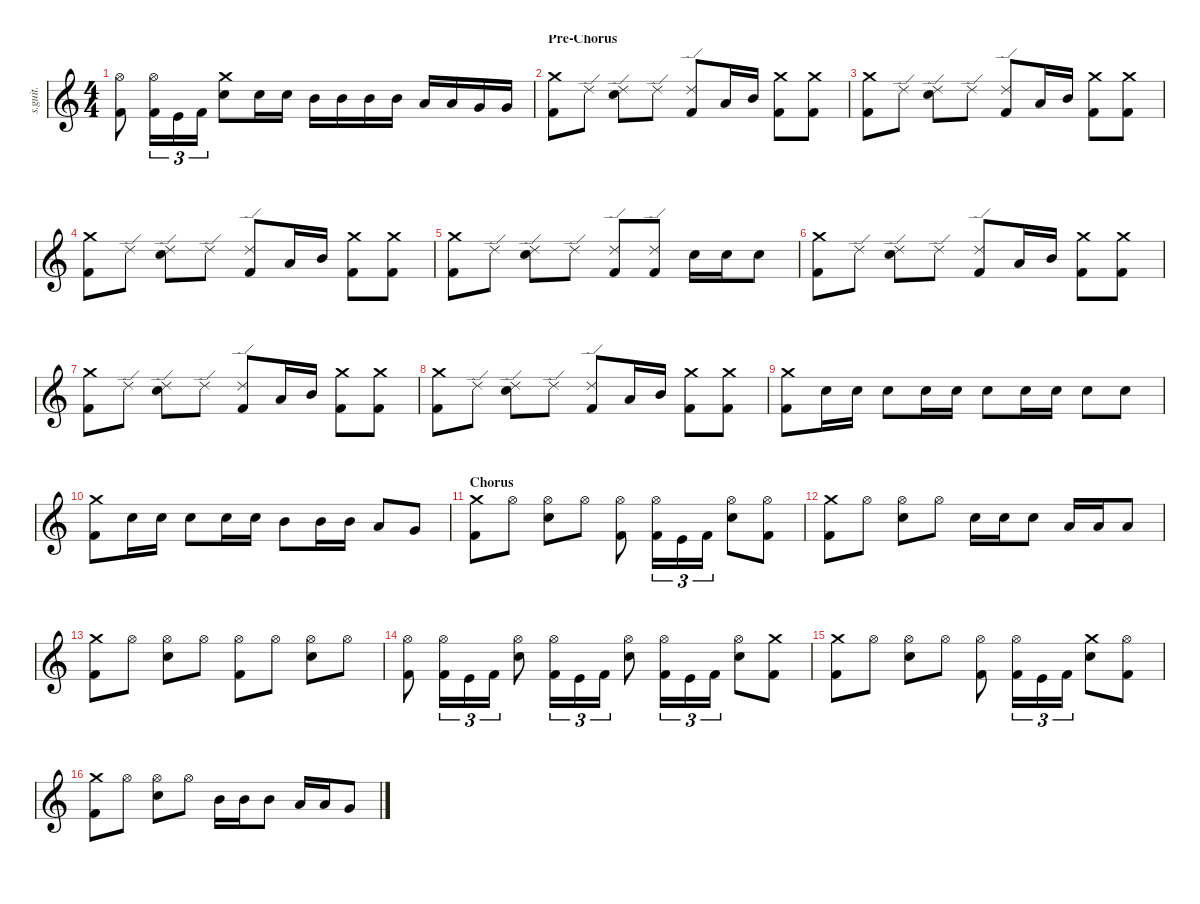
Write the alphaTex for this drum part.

\defaultSystemsLayout 4
\hideDynamics
\bracketExtendMode nobrackets
\track ("Lars Ulrich - Drums" "s.guit.") {instrument percussion}
\staff {score}
\articulation defaults
\ts (4 4)
\tempo (140 hide)
\clef g2
\ks c
("Hi-Hat (open)" "Kick (hit) 2").8{lyrics (0 "") lyrics (1 "") lyrics (2 "") lyrics (3 "") lyrics (4 "") dy f} ("Hi-Hat (open)" "Kick (hit) 2").16{tu (3 2) lyrics (0 "") lyrics (1 "") lyrics (2 "") lyrics (3 "") lyrics (4 "")} "Kick (hit)".16{tu (3 2) lyrics (0 "") lyrics (1 "") lyrics (2 "") lyrics (3 "") lyrics (4 "")} "Kick (hit) 2".16{tu (3 2) lyrics (0 "") lyrics (1 "") lyrics (2 "") lyrics (3 "") lyrics (4 "")} ("Crash medium (hit)" "Snare (hit) 2").8{lyrics (0 "") lyrics (1 "") lyrics (2 "") lyrics (3 "") lyrics (4 "")} "Snare (hit) 2".16{lyrics (0 "") lyrics (1 "") lyrics (2 "") lyrics (3 "") lyrics (4 "")} "Snare (hit) 2".16{lyrics (0 "") lyrics (1 "") lyrics (2 "") lyrics (3 "") lyrics (4 "")} "Mid Tom (hit)".16{lyrics (0 "") lyrics (1 "") lyrics (2 "") lyrics (3 "") lyrics (4 "") dy fff} "Mid Tom (hit)".16{lyrics (0 "") lyrics (1 "") lyrics (2 "") lyrics (3 "") lyrics (4 "")} "Mid Tom (hit)".16{lyrics (0 "") lyrics (1 "") lyrics (2 "") lyrics (3 "") lyrics (4 "")} "Mid Tom (hit)".16{lyrics (0 "") lyrics (1 "") lyrics (2 "") lyrics (3 "") lyrics (4 "")} "Low Tom (hit)".16{lyrics (0 "") lyrics (1 "") lyrics (2 "") lyrics (3 "") lyrics (4 "")} "Low Tom (hit)".16{lyrics (0 "") lyrics (1 "") lyrics (2 "") lyrics (3 "") lyrics (4 "")} "Very Low Tom (hit)".16{lyrics (0 "") lyrics (1 "") lyrics (2 "") lyrics (3 "") lyrics (4 "") dy ff} "Very Low Tom (hit)".16{lyrics (0 "") lyrics (1 "") lyrics (2 "") lyrics (3 "") lyrics (4 "")} |
\section ("" "Pre-Chorus")
("Crash medium (hit)" "Kick (hit) 2").8{lyrics (0 "") lyrics (1 "") lyrics (2 "") lyrics (3 "") lyrics (4 "") dy f} "Ride (edge) 2".8{lyrics (0 "") lyrics (1 "") lyrics (2 "") lyrics (3 "") lyrics (4 "")} ("Ride (edge) 2" "Snare (hit) 2").8{lyrics (0 "") lyrics (1 "") lyrics (2 "") lyrics (3 "") lyrics (4 "")} "Ride (edge) 2".8{lyrics (0 "") lyrics (1 "") lyrics (2 "") lyrics (3 "") lyrics (4 "")} ("Ride (edge) 2" "Kick (hit) 2").8{lyrics (0 "") lyrics (1 "") lyrics (2 "") lyrics (3 "") lyrics (4 "")} "Low Tom (hit)".16{lyrics (0 "") lyrics (1 "") lyrics (2 "") lyrics (3 "") lyrics (4 "") dy fff} "Mid Tom (hit)".16{lyrics (0 "") lyrics (1 "") lyrics (2 "") lyrics (3 "") lyrics (4 "")} ("Crash medium (hit)" "Kick (hit) 2").8{lyrics (0 "") lyrics (1 "") lyrics (2 "") lyrics (3 "") lyrics (4 "") dy f} ("Crash medium (hit)" "Kick (hit) 2").8{lyrics (0 "") lyrics (1 "") lyrics (2 "") lyrics (3 "") lyrics (4 "")} |
("Crash medium (hit)" "Kick (hit) 2").8{lyrics (0 "") lyrics (1 "") lyrics (2 "") lyrics (3 "") lyrics (4 "")} "Ride (edge) 2".8{lyrics (0 "") lyrics (1 "") lyrics (2 "") lyrics (3 "") lyrics (4 "")} ("Ride (edge) 2" "Snare (hit) 2").8{lyrics (0 "") lyrics (1 "") lyrics (2 "") lyrics (3 "") lyrics (4 "")} "Ride (edge) 2".8{lyrics (0 "") lyrics (1 "") lyrics (2 "") lyrics (3 "") lyrics (4 "")} ("Ride (edge) 2" "Kick (hit) 2").8{lyrics (0 "") lyrics (1 "") lyrics (2 "") lyrics (3 "") lyrics (4 "")} "Low Tom (hit)".16{lyrics (0 "") lyrics (1 "") lyrics (2 "") lyrics (3 "") lyrics (4 "") dy fff} "Mid Tom (hit)".16{lyrics (0 "") lyrics (1 "") lyrics (2 "") lyrics (3 "") lyrics (4 "")} ("Crash medium (hit)" "Kick (hit) 2").8{lyrics (0 "") lyrics (1 "") lyrics (2 "") lyrics (3 "") lyrics (4 "") dy f} ("Crash medium (hit)" "Kick (hit) 2").8{lyrics (0 "") lyrics (1 "") lyrics (2 "") lyrics (3 "") lyrics (4 "")} |
("Crash medium (hit)" "Kick (hit) 2").8{lyrics (0 "") lyrics (1 "") lyrics (2 "") lyrics (3 "") lyrics (4 "")} "Ride (edge) 2".8{lyrics (0 "") lyrics (1 "") lyrics (2 "") lyrics (3 "") lyrics (4 "")} ("Ride (edge) 2" "Snare (hit) 2").8{lyrics (0 "") lyrics (1 "") lyrics (2 "") lyrics (3 "") lyrics (4 "")} "Ride (edge) 2".8{lyrics (0 "") lyrics (1 "") lyrics (2 "") lyrics (3 "") lyrics (4 "")} ("Ride (edge) 2" "Kick (hit) 2").8{lyrics (0 "") lyrics (1 "") lyrics (2 "") lyrics (3 "") lyrics (4 "")} "Low Tom (hit)".16{lyrics (0 "") lyrics (1 "") lyrics (2 "") lyrics (3 "") lyrics (4 "") dy fff} "Mid Tom (hit)".16{lyrics (0 "") lyrics (1 "") lyrics (2 "") lyrics (3 "") lyrics (4 "")} ("Crash medium (hit)" "Kick (hit) 2").8{lyrics (0 "") lyrics (1 "") lyrics (2 "") lyrics (3 "") lyrics (4 "") dy f} ("Crash medium (hit)" "Kick (hit) 2").8{lyrics (0 "") lyrics (1 "") lyrics (2 "") lyrics (3 "") lyrics (4 "")} |
("Crash medium (hit)" "Kick (hit) 2").8{lyrics (0 "") lyrics (1 "") lyrics (2 "") lyrics (3 "") lyrics (4 "")} "Ride (edge) 2".8{lyrics (0 "") lyrics (1 "") lyrics (2 "") lyrics (3 "") lyrics (4 "")} ("Ride (edge) 2" "Snare (hit) 2").8{lyrics (0 "") lyrics (1 "") lyrics (2 "") lyrics (3 "") lyrics (4 "")} "Ride (edge) 2".8{lyrics (0 "") lyrics (1 "") lyrics (2 "") lyrics (3 "") lyrics (4 "")} ("Ride (edge) 2" "Kick (hit) 2").8{lyrics (0 "") lyrics (1 "") lyrics (2 "") lyrics (3 "") lyrics (4 "")} ("Ride (edge) 2" "Kick (hit) 2").8{lyrics (0 "") lyrics (1 "") lyrics (2 "") lyrics (3 "") lyrics (4 "")} "Snare (hit) 2".16{lyrics (0 "") lyrics (1 "") lyrics (2 "") lyrics (3 "") lyrics (4 "") dy ff} "Snare (hit) 2".16{lyrics (0 "") lyrics (1 "") lyrics (2 "") lyrics (3 "") lyrics (4 "")} "Snare (hit) 2".8{lyrics (0 "") lyrics (1 "") lyrics (2 "") lyrics (3 "") lyrics (4 "")} |
("Crash medium (hit)" "Kick (hit) 2").8{lyrics (0 "") lyrics (1 "") lyrics (2 "") lyrics (3 "") lyrics (4 "") dy f} "Ride (edge) 2".8{lyrics (0 "") lyrics (1 "") lyrics (2 "") lyrics (3 "") lyrics (4 "")} ("Ride (edge) 2" "Snare (hit) 2").8{lyrics (0 "") lyrics (1 "") lyrics (2 "") lyrics (3 "") lyrics (4 "")} "Ride (edge) 2".8{lyrics (0 "") lyrics (1 "") lyrics (2 "") lyrics (3 "") lyrics (4 "")} ("Ride (edge) 2" "Kick (hit) 2").8{lyrics (0 "") lyrics (1 "") lyrics (2 "") lyrics (3 "") lyrics (4 "")} "Low Tom (hit)".16{lyrics (0 "") lyrics (1 "") lyrics (2 "") lyrics (3 "") lyrics (4 "") dy fff} "Mid Tom (hit)".16{lyrics (0 "") lyrics (1 "") lyrics (2 "") lyrics (3 "") lyrics (4 "")} ("Crash medium (hit)" "Kick (hit) 2").8{lyrics (0 "") lyrics (1 "") lyrics (2 "") lyrics (3 "") lyrics (4 "") dy f} ("Crash medium (hit)" "Kick (hit) 2").8{lyrics (0 "") lyrics (1 "") lyrics (2 "") lyrics (3 "") lyrics (4 "")} |
("Crash medium (hit)" "Kick (hit) 2").8{lyrics (0 "") lyrics (1 "") lyrics (2 "") lyrics (3 "") lyrics (4 "")} "Ride (edge) 2".8{lyrics (0 "") lyrics (1 "") lyrics (2 "") lyrics (3 "") lyrics (4 "")} ("Ride (edge) 2" "Snare (hit) 2").8{lyrics (0 "") lyrics (1 "") lyrics (2 "") lyrics (3 "") lyrics (4 "")} "Ride (edge) 2".8{lyrics (0 "") lyrics (1 "") lyrics (2 "") lyrics (3 "") lyrics (4 "")} ("Ride (edge) 2" "Kick (hit) 2").8{lyrics (0 "") lyrics (1 "") lyrics (2 "") lyrics (3 "") lyrics (4 "")} "Low Tom (hit)".16{lyrics (0 "") lyrics (1 "") lyrics (2 "") lyrics (3 "") lyrics (4 "") dy fff} "Mid Tom (hit)".16{lyrics (0 "") lyrics (1 "") lyrics (2 "") lyrics (3 "") lyrics (4 "")} ("Crash medium (hit)" "Kick (hit) 2").8{lyrics (0 "") lyrics (1 "") lyrics (2 "") lyrics (3 "") lyrics (4 "") dy f} ("Crash medium (hit)" "Kick (hit) 2").8{lyrics (0 "") lyrics (1 "") lyrics (2 "") lyrics (3 "") lyrics (4 "")} |
("Crash medium (hit)" "Kick (hit) 2").8{lyrics (0 "") lyrics (1 "") lyrics (2 "") lyrics (3 "") lyrics (4 "")} "Ride (edge) 2".8{lyrics (0 "") lyrics (1 "") lyrics (2 "") lyrics (3 "") lyrics (4 "")} ("Ride (edge) 2" "Snare (hit) 2").8{lyrics (0 "") lyrics (1 "") lyrics (2 "") lyrics (3 "") lyrics (4 "")} "Ride (edge) 2".8{lyrics (0 "") lyrics (1 "") lyrics (2 "") lyrics (3 "") lyrics (4 "")} ("Ride (edge) 2" "Kick (hit) 2").8{lyrics (0 "") lyrics (1 "") lyrics (2 "") lyrics (3 "") lyrics (4 "")} "Low Tom (hit)".16{lyrics (0 "") lyrics (1 "") lyrics (2 "") lyrics (3 "") lyrics (4 "") dy fff} "Mid Tom (hit)".16{lyrics (0 "") lyrics (1 "") lyrics (2 "") lyrics (3 "") lyrics (4 "")} ("Crash medium (hit)" "Kick (hit) 2").8{lyrics (0 "") lyrics (1 "") lyrics (2 "") lyrics (3 "") lyrics (4 "") dy f} ("Crash medium (hit)" "Kick (hit) 2").8{lyrics (0 "") lyrics (1 "") lyrics (2 "") lyrics (3 "") lyrics (4 "")} |
("Crash medium (hit)" "Kick (hit) 2").8{lyrics (0 "") lyrics (1 "") lyrics (2 "") lyrics (3 "") lyrics (4 "")} "Snare (hit) 2".16{lyrics (0 "") lyrics (1 "") lyrics (2 "") lyrics (3 "") lyrics (4 "") dy mf} "Snare (hit) 2".16{lyrics (0 "") lyrics (1 "") lyrics (2 "") lyrics (3 "") lyrics (4 "")} "Snare (hit) 2".8{lyrics (0 "") lyrics (1 "") lyrics (2 "") lyrics (3 "") lyrics (4 "") dy ff} "Snare (hit) 2".16{lyrics (0 "") lyrics (1 "") lyrics (2 "") lyrics (3 "") lyrics (4 "") dy mf} "Snare (hit) 2".16{lyrics (0 "") lyrics (1 "") lyrics (2 "") lyrics (3 "") lyrics (4 "")} "Snare (hit) 2".8{lyrics (0 "") lyrics (1 "") lyrics (2 "") lyrics (3 "") lyrics (4 "") dy ff} "Snare (hit) 2".16{lyrics (0 "") lyrics (1 "") lyrics (2 "") lyrics (3 "") lyrics (4 "") dy mf} "Snare (hit) 2".16{lyrics (0 "") lyrics (1 "") lyrics (2 "") lyrics (3 "") lyrics (4 "")} "Snare (hit) 2".8{lyrics (0 "") lyrics (1 "") lyrics (2 "") lyrics (3 "") lyrics (4 "") dy ff} "Snare (hit) 2".8{lyrics (0 "") lyrics (1 "") lyrics (2 "") lyrics (3 "") lyrics (4 "")} |
("Crash medium (hit)" "Kick (hit) 2").8{lyrics (0 "") lyrics (1 "") lyrics (2 "") lyrics (3 "") lyrics (4 "") dy f} "Snare (hit) 2".16{lyrics (0 "") lyrics (1 "") lyrics (2 "") lyrics (3 "") lyrics (4 "") dy mf} "Snare (hit) 2".16{lyrics (0 "") lyrics (1 "") lyrics (2 "") lyrics (3 "") lyrics (4 "")} "Snare (hit) 2".8{lyrics (0 "") lyrics (1 "") lyrics (2 "") lyrics (3 "") lyrics (4 "") dy ff} "Snare (hit) 2".16{lyrics (0 "") lyrics (1 "") lyrics (2 "") lyrics (3 "") lyrics (4 "") dy mf} "Snare (hit) 2".16{lyrics (0 "") lyrics (1 "") lyrics (2 "") lyrics (3 "") lyrics (4 "")} "Mid Tom (hit)".8{lyrics (0 "") lyrics (1 "") lyrics (2 "") lyrics (3 "") lyrics (4 "") dy fff} "Mid Tom (hit)".16{lyrics (0 "") lyrics (1 "") lyrics (2 "") lyrics (3 "") lyrics (4 "")} "Mid Tom (hit)".16{lyrics (0 "") lyrics (1 "") lyrics (2 "") lyrics (3 "") lyrics (4 "")} "Low Tom (hit)".8{lyrics (0 "") lyrics (1 "") lyrics (2 "") lyrics (3 "") lyrics (4 "")} "Very Low Tom (hit)".8{lyrics (0 "") lyrics (1 "") lyrics (2 "") lyrics (3 "") lyrics (4 "") dy ff} |
\section ("" "Chorus")
("Crash medium (hit)" "Kick (hit) 2").8{lyrics (0 "") lyrics (1 "") lyrics (2 "") lyrics (3 "") lyrics (4 "") dy f} "Hi-Hat (open)".8{lyrics (0 "") lyrics (1 "") lyrics (2 "") lyrics (3 "") lyrics (4 "")} ("Hi-Hat (open)" "Snare (hit) 2").8{lyrics (0 "") lyrics (1 "") lyrics (2 "") lyrics (3 "") lyrics (4 "")} "Hi-Hat (open)".8{lyrics (0 "") lyrics (1 "") lyrics (2 "") lyrics (3 "") lyrics (4 "")} ("Hi-Hat (open)" "Kick (hit) 2").8{lyrics (0 "") lyrics (1 "") lyrics (2 "") lyrics (3 "") lyrics (4 "")} ("Hi-Hat (open)" "Kick (hit) 2").16{tu (3 2) lyrics (0 "") lyrics (1 "") lyrics (2 "") lyrics (3 "") lyrics (4 "")} "Kick (hit)".16{tu (3 2) lyrics (0 "") lyrics (1 "") lyrics (2 "") lyrics (3 "") lyrics (4 "")} "Kick (hit) 2".16{tu (3 2) lyrics (0 "") lyrics (1 "") lyrics (2 "") lyrics (3 "") lyrics (4 "")} ("Hi-Hat (open)" "Snare (hit) 2").8{lyrics (0 "") lyrics (1 "") lyrics (2 "") lyrics (3 "") lyrics (4 "")} ("Hi-Hat (open)" "Kick (hit) 2").8{lyrics (0 "") lyrics (1 "") lyrics (2 "") lyrics (3 "") lyrics (4 "")} |
("Crash medium (hit)" "Kick (hit) 2").8{lyrics (0 "") lyrics (1 "") lyrics (2 "") lyrics (3 "") lyrics (4 "")} "Hi-Hat (open)".8{lyrics (0 "") lyrics (1 "") lyrics (2 "") lyrics (3 "") lyrics (4 "")} ("Hi-Hat (open)" "Snare (hit) 2").8{lyrics (0 "") lyrics (1 "") lyrics (2 "") lyrics (3 "") lyrics (4 "")} "Hi-Hat (open)".8{lyrics (0 "") lyrics (1 "") lyrics (2 "") lyrics (3 "") lyrics (4 "")} "Snare (hit) 2".16{lyrics (0 "") lyrics (1 "") lyrics (2 "") lyrics (3 "") lyrics (4 "") dy ff} "Snare (hit) 2".16{lyrics (0 "") lyrics (1 "") lyrics (2 "") lyrics (3 "") lyrics (4 "")} "Snare (hit) 2".8{lyrics (0 "") lyrics (1 "") lyrics (2 "") lyrics (3 "") lyrics (4 "")} "Low Tom (hit)".16{lyrics (0 "") lyrics (1 "") lyrics (2 "") lyrics (3 "") lyrics (4 "") dy fff} "Low Tom (hit)".16{lyrics (0 "") lyrics (1 "") lyrics (2 "") lyrics (3 "") lyrics (4 "")} "Low Tom (hit)".8{lyrics (0 "") lyrics (1 "") lyrics (2 "") lyrics (3 "") lyrics (4 "")} |
("Crash medium (hit)" "Kick (hit) 2").8{lyrics (0 "") lyrics (1 "") lyrics (2 "") lyrics (3 "") lyrics (4 "") dy f} "Hi-Hat (open)".8{lyrics (0 "") lyrics (1 "") lyrics (2 "") lyrics (3 "") lyrics (4 "")} ("Hi-Hat (open)" "Snare (hit) 2").8{lyrics (0 "") lyrics (1 "") lyrics (2 "") lyrics (3 "") lyrics (4 "")} "Hi-Hat (open)".8{lyrics (0 "") lyrics (1 "") lyrics (2 "") lyrics (3 "") lyrics (4 "")} ("Hi-Hat (open)" "Kick (hit) 2").8{lyrics (0 "") lyrics (1 "") lyrics (2 "") lyrics (3 "") lyrics (4 "")} "Hi-Hat (open)".8{lyrics (0 "") lyrics (1 "") lyrics (2 "") lyrics (3 "") lyrics (4 "")} ("Hi-Hat (open)" "Snare (hit) 2").8{lyrics (0 "") lyrics (1 "") lyrics (2 "") lyrics (3 "") lyrics (4 "")} "Hi-Hat (open)".8{lyrics (0 "") lyrics (1 "") lyrics (2 "") lyrics (3 "") lyrics (4 "")} |
("Hi-Hat (open)" "Kick (hit) 2").8{lyrics (0 "") lyrics (1 "") lyrics (2 "") lyrics (3 "") lyrics (4 "")} ("Hi-Hat (open)" "Kick (hit) 2").16{tu (3 2) lyrics (0 "") lyrics (1 "") lyrics (2 "") lyrics (3 "") lyrics (4 "")} "Kick (hit)".16{tu (3 2) lyrics (0 "") lyrics (1 "") lyrics (2 "") lyrics (3 "") lyrics (4 "")} "Kick (hit) 2".16{tu (3 2) lyrics (0 "") lyrics (1 "") lyrics (2 "") lyrics (3 "") lyrics (4 "")} ("Hi-Hat (open)" "Snare (hit) 2").8{lyrics (0 "") lyrics (1 "") lyrics (2 "") lyrics (3 "") lyrics (4 "")} ("Hi-Hat (open)" "Kick (hit) 2").16{tu (3 2) lyrics (0 "") lyrics (1 "") lyrics (2 "") lyrics (3 "") lyrics (4 "")} "Kick (hit)".16{tu (3 2) lyrics (0 "") lyrics (1 "") lyrics (2 "") lyrics (3 "") lyrics (4 "")} "Kick (hit) 2".16{tu (3 2) lyrics (0 "") lyrics (1 "") lyrics (2 "") lyrics (3 "") lyrics (4 "")} ("Hi-Hat (open)" "Snare (hit) 2").8{lyrics (0 "") lyrics (1 "") lyrics (2 "") lyrics (3 "") lyrics (4 "")} ("Hi-Hat (open)" "Kick (hit) 2").16{tu (3 2) lyrics (0 "") lyrics (1 "") lyrics (2 "") lyrics (3 "") lyrics (4 "")} "Kick (hit)".16{tu (3 2) lyrics (0 "") lyrics (1 "") lyrics (2 "") lyrics (3 "") lyrics (4 "")} "Kick (hit) 2".16{tu (3 2) lyrics (0 "") lyrics (1 "") lyrics (2 "") lyrics (3 "") lyrics (4 "")} ("Hi-Hat (open)" "Snare (hit) 2").8{lyrics (0 "") lyrics (1 "") lyrics (2 "") lyrics (3 "") lyrics (4 "")} ("Crash medium (hit)" "Kick (hit) 2").8{lyrics (0 "") lyrics (1 "") lyrics (2 "") lyrics (3 "") lyrics (4 "")} |
("Crash medium (hit)" "Kick (hit) 2").8{lyrics (0 "") lyrics (1 "") lyrics (2 "") lyrics (3 "") lyrics (4 "")} "Hi-Hat (open)".8{lyrics (0 "") lyrics (1 "") lyrics (2 "") lyrics (3 "") lyrics (4 "")} ("Hi-Hat (open)" "Snare (hit) 2").8{lyrics (0 "") lyrics (1 "") lyrics (2 "") lyrics (3 "") lyrics (4 "")} "Hi-Hat (open)".8{lyrics (0 "") lyrics (1 "") lyrics (2 "") lyrics (3 "") lyrics (4 "")} ("Hi-Hat (open)" "Kick (hit) 2").8{lyrics (0 "") lyrics (1 "") lyrics (2 "") lyrics (3 "") lyrics (4 "")} ("Hi-Hat (open)" "Kick (hit) 2").16{tu (3 2) lyrics (0 "") lyrics (1 "") lyrics (2 "") lyrics (3 "") lyrics (4 "")} "Kick (hit)".16{tu (3 2) lyrics (0 "") lyrics (1 "") lyrics (2 "") lyrics (3 "") lyrics (4 "")} "Kick (hit) 2".16{tu (3 2) lyrics (0 "") lyrics (1 "") lyrics (2 "") lyrics (3 "") lyrics (4 "")} ("Crash medium (hit)" "Snare (hit) 2").8{lyrics (0 "") lyrics (1 "") lyrics (2 "") lyrics (3 "") lyrics (4 "")} ("Hi-Hat (open)" "Kick (hit) 2").8{lyrics (0 "") lyrics (1 "") lyrics (2 "") lyrics (3 "") lyrics (4 "")} |
("Crash medium (hit)" "Kick (hit) 2").8{lyrics (0 "") lyrics (1 "") lyrics (2 "") lyrics (3 "") lyrics (4 "")} "Hi-Hat (open)".8{lyrics (0 "") lyrics (1 "") lyrics (2 "") lyrics (3 "") lyrics (4 "")} ("Hi-Hat (open)" "Snare (hit) 2").8{lyrics (0 "") lyrics (1 "") lyrics (2 "") lyrics (3 "") lyrics (4 "")} "Hi-Hat (open)".8{lyrics (0 "") lyrics (1 "") lyrics (2 "") lyrics (3 "") lyrics (4 "")} "Mid Tom (hit)".16{lyrics (0 "") lyrics (1 "") lyrics (2 "") lyrics (3 "") lyrics (4 "") dy fff} "Mid Tom (hit)".16{lyrics (0 "") lyrics (1 "") lyrics (2 "") lyrics (3 "") lyrics (4 "")} "Mid Tom (hit)".8{lyrics (0 "") lyrics (1 "") lyrics (2 "") lyrics (3 "") lyrics (4 "")} "Low Tom (hit)".16{lyrics (0 "") lyrics (1 "") lyrics (2 "") lyrics (3 "") lyrics (4 "")} "Low Tom (hit)".16{lyrics (0 "") lyrics (1 "") lyrics (2 "") lyrics (3 "") lyrics (4 "")} "Very Low Tom (hit)".8{lyrics (0 "") lyrics (1 "") lyrics (2 "") lyrics (3 "") lyrics (4 "") dy ff}
